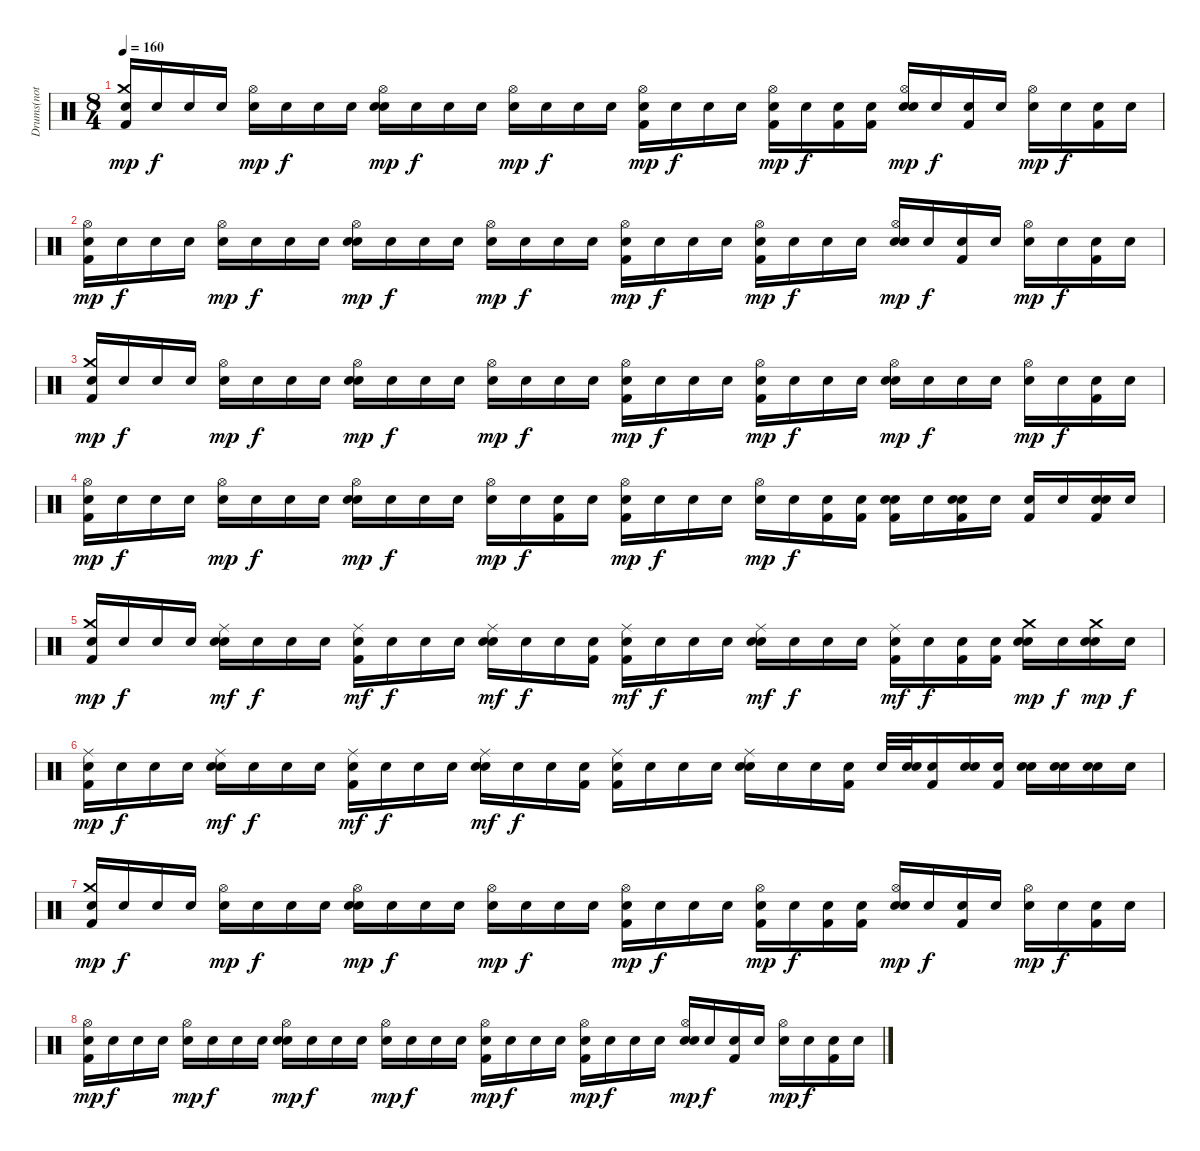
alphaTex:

\track ("Drums(not correct)" "Drums(not ") {instrument percussion}
\staff {score}
\articulation defaults
\ts (8 4)
\tempo 160
\clef neutral
\ks c
("Snare (hit)"{x} "Crash medium (hit)" "Kick (hit) 2").16{dy mp} "Snare (hit)"{x}.16{dy f} "Snare (hit)"{x}.16 "Snare (hit)"{x}.16 ("Snare (hit)"{x} "Hi-Hat (open)").16{dy mp} "Snare (hit)"{x}.16{dy f} "Snare (hit)"{x}.16 "Snare (hit)"{x}.16 ("Snare (hit)"{x} "Hi-Hat (open)" "Electric Snare (hit)").16{dy mp} "Snare (hit)"{x}.16{dy f} "Snare (hit)"{x}.16 "Snare (hit)"{x}.16 ("Snare (hit)"{x} "Hi-Hat (open)").16{dy mp} "Snare (hit)"{x}.16{dy f} "Snare (hit)"{x}.16 "Snare (hit)"{x}.16 ("Snare (hit)"{x} "Hi-Hat (open)" "Kick (hit) 2").16{dy mp} "Snare (hit)"{x}.16{dy f} "Snare (hit)"{x}.16 "Snare (hit)"{x}.16 ("Snare (hit)"{x} "Hi-Hat (open)" "Kick (hit) 2").16{dy mp} "Snare (hit)"{x}.16{dy f} ("Snare (hit)"{x} "Kick (hit) 2").16 ("Snare (hit)"{x} "Kick (hit) 2").16 ("Snare (hit)"{x} "Hi-Hat (open)" "Electric Snare (hit)").16{dy mp} "Snare (hit)"{x}.16{dy f} ("Snare (hit)"{x} "Kick (hit) 2").16 "Snare (hit)"{x}.16 ("Snare (hit)"{x} "Hi-Hat (open)").16{dy mp} "Snare (hit)"{x}.16{dy f} ("Snare (hit)"{x} "Kick (hit) 2").16 "Snare (hit)"{x}.16 |
("Snare (hit)"{x} "Hi-Hat (open)" "Kick (hit) 2").16{dy mp} "Snare (hit)"{x}.16{dy f} "Snare (hit)"{x}.16 "Snare (hit)"{x}.16 ("Snare (hit)"{x} "Hi-Hat (open)").16{dy mp} "Snare (hit)"{x}.16{dy f} "Snare (hit)"{x}.16 "Snare (hit)"{x}.16 ("Snare (hit)"{x} "Hi-Hat (open)" "Electric Snare (hit)").16{dy mp} "Snare (hit)"{x}.16{dy f} "Snare (hit)"{x}.16 "Snare (hit)"{x}.16 ("Snare (hit)"{x} "Hi-Hat (open)").16{dy mp} "Snare (hit)"{x}.16{dy f} "Snare (hit)"{x}.16 "Snare (hit)"{x}.16 ("Snare (hit)"{x} "Hi-Hat (open)" "Kick (hit) 2").16{dy mp} "Snare (hit)"{x}.16{dy f} "Snare (hit)"{x}.16 "Snare (hit)"{x}.16 ("Snare (hit)"{x} "Hi-Hat (open)" "Kick (hit) 2").16{dy mp} "Snare (hit)"{x}.16{dy f} "Snare (hit)"{x}.16 "Snare (hit)"{x}.16 ("Snare (hit)"{x} "Hi-Hat (open)" "Electric Snare (hit)").16{dy mp} "Snare (hit)"{x}.16{dy f} ("Snare (hit)"{x} "Kick (hit) 2").16 "Snare (hit)"{x}.16 ("Snare (hit)"{x} "Hi-Hat (open)").16{dy mp} "Snare (hit)"{x}.16{dy f} ("Snare (hit)"{x} "Kick (hit) 2").16 "Snare (hit)"{x}.16 |
("Snare (hit)"{x} "Crash medium (hit)" "Kick (hit) 2").16{dy mp} "Snare (hit)"{x}.16{dy f} "Snare (hit)"{x}.16 "Snare (hit)"{x}.16 ("Snare (hit)"{x} "Hi-Hat (open)").16{dy mp} "Snare (hit)"{x}.16{dy f} "Snare (hit)"{x}.16 "Snare (hit)"{x}.16 ("Snare (hit)"{x} "Hi-Hat (open)" "Electric Snare (hit)").16{dy mp} "Snare (hit)"{x}.16{dy f} "Snare (hit)"{x}.16 "Snare (hit)"{x}.16 ("Snare (hit)"{x} "Hi-Hat (open)").16{dy mp} "Snare (hit)"{x}.16{dy f} "Snare (hit)"{x}.16 "Snare (hit)"{x}.16 ("Snare (hit)"{x} "Hi-Hat (open)" "Kick (hit) 2").16{dy mp} "Snare (hit)"{x}.16{dy f} "Snare (hit)"{x}.16 "Snare (hit)"{x}.16 ("Snare (hit)"{x} "Hi-Hat (open)" "Kick (hit) 2").16{dy mp} "Snare (hit)"{x}.16{dy f} "Snare (hit)"{x}.16 "Snare (hit)"{x}.16 ("Snare (hit)"{x} "Hi-Hat (open)" "Electric Snare (hit)").16{dy mp} "Snare (hit)"{x}.16{dy f} "Snare (hit)"{x}.16 "Snare (hit)"{x}.16 ("Snare (hit)"{x} "Hi-Hat (open)").16{dy mp} "Snare (hit)"{x}.16{dy f} ("Snare (hit)"{x} "Kick (hit) 2").16 "Snare (hit)"{x}.16 |
("Snare (hit)"{x} "Hi-Hat (open)" "Kick (hit) 2").16{dy mp} "Snare (hit)"{x}.16{dy f} "Snare (hit)"{x}.16 "Snare (hit)"{x}.16 ("Snare (hit)"{x} "Hi-Hat (open)").16{dy mp} "Snare (hit)"{x}.16{dy f} "Snare (hit)"{x}.16 "Snare (hit)"{x}.16 ("Snare (hit)"{x} "Hi-Hat (open)" "Electric Snare (hit)").16{dy mp} "Snare (hit)"{x}.16{dy f} "Snare (hit)"{x}.16 "Snare (hit)"{x}.16 ("Snare (hit)"{x} "Hi-Hat (open)").16{dy mp} "Snare (hit)"{x}.16{dy f} ("Snare (hit)"{x} "Kick (hit) 2").16 "Snare (hit)"{x}.16 ("Snare (hit)"{x} "Hi-Hat (open)" "Kick (hit) 2").16{dy mp} "Snare (hit)"{x}.16{dy f} "Snare (hit)"{x}.16 "Snare (hit)"{x}.16 ("Snare (hit)"{x} "Hi-Hat (open)").16{dy mp} "Snare (hit)"{x}.16{dy f} ("Snare (hit)"{x} "Kick (hit) 2").16 ("Snare (hit)"{x} "Kick (hit) 2").16 ("Snare (hit)"{x} "Electric Snare (hit)" "Kick (hit) 2").16 "Snare (hit)"{x}.16 ("Snare (hit)"{x} "Electric Snare (hit)" "Kick (hit) 2").16 "Snare (hit)"{x}.16 ("Electric Snare (hit)" "Kick (hit) 2").16 "Snare (hit)"{x}.16 ("Snare (hit)"{x} "Electric Snare (hit)" "Kick (hit) 2").16 "Snare (hit)"{x}.16 |
("Snare (hit)"{x} "Crash medium (hit)" "Kick (hit) 2").16{dy mp} "Snare (hit)"{x}.16{dy f} "Snare (hit)"{x}.16 "Snare (hit)"{x}.16 ("Snare (hit)"{x} "Ride (middle)" "Electric Snare (hit)").16{dy mf} "Snare (hit)"{x}.16{dy f} "Snare (hit)"{x}.16 "Snare (hit)"{x}.16 ("Snare (hit)"{x} "Ride (middle)" "Kick (hit) 2").16{dy mf} "Snare (hit)"{x}.16{dy f} "Snare (hit)"{x}.16 "Snare (hit)"{x}.16 ("Snare (hit)"{x} "Ride (middle)" "Electric Snare (hit)").16{dy mf} "Snare (hit)"{x}.16{dy f} "Snare (hit)"{x}.16 ("Snare (hit)"{x} "Kick (hit) 2").16 ("Snare (hit)"{x} "Ride (middle)" "Kick (hit) 2").16{dy mf} "Snare (hit)"{x}.16{dy f} "Snare (hit)"{x}.16 "Snare (hit)"{x}.16 ("Snare (hit)"{x} "Ride (middle)" "Electric Snare (hit)").16{dy mf} "Snare (hit)"{x}.16{dy f} "Snare (hit)"{x}.16 "Snare (hit)"{x}.16 ("Snare (hit)"{x} "Ride (middle)" "Kick (hit) 2").16{dy mf} "Snare (hit)"{x}.16{dy f} ("Snare (hit)"{x} "Kick (hit) 2").16 ("Snare (hit)"{x} "Kick (hit) 2").16 ("Snare (hit)"{x} "Crash medium (hit)" "Electric Snare (hit)").16{dy mp} "Snare (hit)"{x}.16{dy f} ("Snare (hit)"{x} "Crash medium (hit)" "Electric Snare (hit)").16{dy mp} "Snare (hit)"{x}.16{dy f} |
("Snare (hit)"{x} "Ride (middle)" "Kick (hit) 2").16{dy mp} "Snare (hit)"{x}.16{dy f} "Snare (hit)"{x}.16 "Snare (hit)"{x}.16 ("Snare (hit)"{x} "Ride (middle)" "Electric Snare (hit)").16{dy mf} "Snare (hit)"{x}.16{dy f} "Snare (hit)"{x}.16 "Snare (hit)"{x}.16 ("Snare (hit)"{x} "Ride (middle)" "Kick (hit) 2").16{dy mf} "Snare (hit)"{x}.16{dy f} "Snare (hit)"{x}.16 "Snare (hit)"{x}.16 ("Snare (hit)"{x} "Ride (middle)" "Electric Snare (hit)").16{dy mf} "Snare (hit)"{x}.16{dy f} "Snare (hit)"{x}.16 ("Snare (hit)"{x} "Kick (hit) 2").16 ("Snare (hit)"{x} "Ride (middle)" "Kick (hit) 2").16 "Snare (hit)"{x}.16 "Snare (hit)"{x}.16 "Snare (hit)"{x}.16 ("Snare (hit)"{x} "Ride (middle)" "Electric Snare (hit)").16 "Snare (hit)"{x}.16 "Snare (hit)"{x}.16 ("Snare (hit)"{x} "Kick (hit) 2").16 "Electric Snare (hit)".32 ("Snare (hit)"{x} "Electric Snare (hit)").32 ("Snare (hit)"{x} "Kick (hit) 2").16 ("Snare (hit)"{x} "Electric Snare (hit)").16 ("Snare (hit)"{x} "Kick (hit) 2").16 ("Snare (hit)"{x} "Electric Snare (hit)").16 ("Snare (hit)"{x} "Electric Snare (hit)").16 ("Snare (hit)"{x} "Electric Snare (hit)").16 "Electric Snare (hit)".16 |
("Snare (hit)"{x} "Crash medium (hit)" "Kick (hit) 2").16{dy mp} "Snare (hit)"{x}.16{dy f} "Snare (hit)"{x}.16 "Snare (hit)"{x}.16 ("Snare (hit)"{x} "Hi-Hat (open)").16{dy mp} "Snare (hit)"{x}.16{dy f} "Snare (hit)"{x}.16 "Snare (hit)"{x}.16 ("Snare (hit)"{x} "Hi-Hat (open)" "Electric Snare (hit)").16{dy mp} "Snare (hit)"{x}.16{dy f} "Snare (hit)"{x}.16 "Snare (hit)"{x}.16 ("Snare (hit)"{x} "Hi-Hat (open)").16{dy mp} "Snare (hit)"{x}.16{dy f} "Snare (hit)"{x}.16 "Snare (hit)"{x}.16 ("Snare (hit)"{x} "Hi-Hat (open)" "Kick (hit) 2").16{dy mp} "Snare (hit)"{x}.16{dy f} "Snare (hit)"{x}.16 "Snare (hit)"{x}.16 ("Snare (hit)"{x} "Hi-Hat (open)" "Kick (hit) 2").16{dy mp} "Snare (hit)"{x}.16{dy f} ("Snare (hit)"{x} "Kick (hit) 2").16 ("Snare (hit)"{x} "Kick (hit) 2").16 ("Snare (hit)"{x} "Hi-Hat (open)" "Electric Snare (hit)").16{dy mp} "Snare (hit)"{x}.16{dy f} ("Snare (hit)"{x} "Kick (hit) 2").16 "Snare (hit)"{x}.16 ("Snare (hit)"{x} "Hi-Hat (open)").16{dy mp} "Snare (hit)"{x}.16{dy f} ("Snare (hit)"{x} "Kick (hit) 2").16 "Snare (hit)"{x}.16 |
("Snare (hit)"{x} "Hi-Hat (open)" "Kick (hit) 2").16{dy mp} "Snare (hit)"{x}.16{dy f} "Snare (hit)"{x}.16 "Snare (hit)"{x}.16 ("Snare (hit)"{x} "Hi-Hat (open)").16{dy mp} "Snare (hit)"{x}.16{dy f} "Snare (hit)"{x}.16 "Snare (hit)"{x}.16 ("Snare (hit)"{x} "Hi-Hat (open)" "Electric Snare (hit)").16{dy mp} "Snare (hit)"{x}.16{dy f} "Snare (hit)"{x}.16 "Snare (hit)"{x}.16 ("Snare (hit)"{x} "Hi-Hat (open)").16{dy mp} "Snare (hit)"{x}.16{dy f} "Snare (hit)"{x}.16 "Snare (hit)"{x}.16 ("Snare (hit)"{x} "Hi-Hat (open)" "Kick (hit) 2").16{dy mp} "Snare (hit)"{x}.16{dy f} "Snare (hit)"{x}.16 "Snare (hit)"{x}.16 ("Snare (hit)"{x} "Hi-Hat (open)" "Kick (hit) 2").16{dy mp} "Snare (hit)"{x}.16{dy f} "Snare (hit)"{x}.16 "Snare (hit)"{x}.16 ("Snare (hit)"{x} "Hi-Hat (open)" "Electric Snare (hit)").16{dy mp} "Snare (hit)"{x}.16{dy f} ("Snare (hit)"{x} "Kick (hit) 2").16 "Snare (hit)"{x}.16 ("Snare (hit)"{x} "Hi-Hat (open)").16{dy mp} "Snare (hit)"{x}.16{dy f} ("Snare (hit)"{x} "Kick (hit) 2").16 "Snare (hit)"{x}.16
